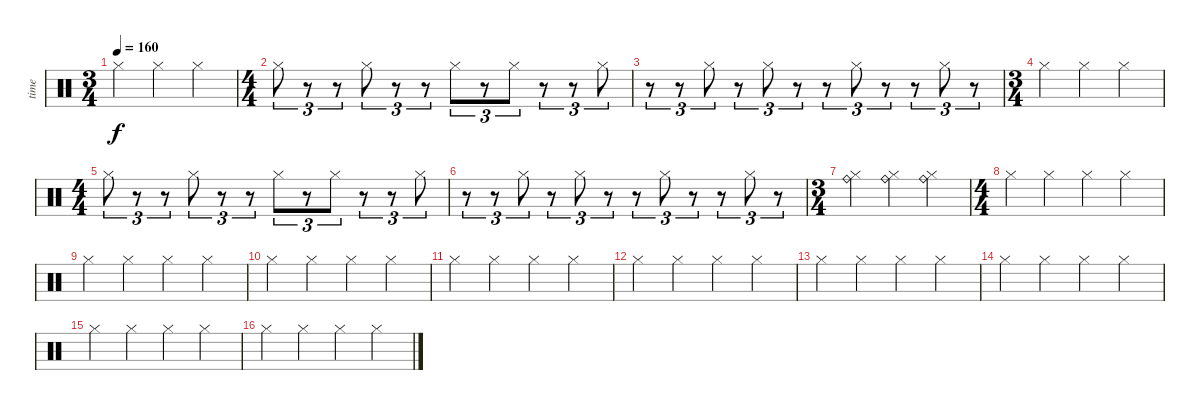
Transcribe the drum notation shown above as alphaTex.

\track ("time" "time") {instrument percussion}
\staff {score}
\articulation defaults
\ts (3 4)
\tempo 160
\clef neutral
\ks c "Hi-Hat (closed)".4{dy f} "Hi-Hat (closed)".4 "Hi-Hat (closed)".4
|
\ts (4 4)
"Hi-Hat (closed)".8{tu (3 2)} r.8{tu (3 2)} r.8{tu (3 2)} "Hi-Hat (closed)".8{tu (3 2)} r.8{tu (3 2)} r.8{tu (3 2)} "Hi-Hat (closed)".8{tu (3 2)} r.8{tu (3 2)} "Hi-Hat (closed)".8{tu (3 2)} r.8{tu (3 2)} r.8{tu (3 2)} "Hi-Hat (closed)".8{tu (3 2)} |
r.8{tu (3 2)} r.8{tu (3 2)} "Hi-Hat (closed)".8{tu (3 2)} r.8{tu (3 2)} "Hi-Hat (closed)".8{tu (3 2)} r.8{tu (3 2)} r.8{tu (3 2)} "Hi-Hat (closed)".8{tu (3 2)} r.8{tu (3 2)} r.8{tu (3 2)} "Hi-Hat (closed)".8{tu (3 2)} r.8{tu (3 2)} |
\ts (3 4)
"Hi-Hat (closed)".4 "Hi-Hat (closed)".4 "Hi-Hat (closed)".4 |
\ts (4 4)
"Hi-Hat (closed)".8{tu (3 2)} r.8{tu (3 2)} r.8{tu (3 2)} "Hi-Hat (closed)".8{tu (3 2)} r.8{tu (3 2)} r.8{tu (3 2)} "Hi-Hat (closed)".8{tu (3 2)} r.8{tu (3 2)} "Hi-Hat (closed)".8{tu (3 2)} r.8{tu (3 2)} r.8{tu (3 2)} "Hi-Hat (closed)".8{tu (3 2)} |
r.8{tu (3 2)} r.8{tu (3 2)} "Hi-Hat (closed)".8{tu (3 2)} r.8{tu (3 2)} "Hi-Hat (closed)".8{tu (3 2)} r.8{tu (3 2)} r.8{tu (3 2)} "Hi-Hat (closed)".8{tu (3 2)} r.8{tu (3 2)} r.8{tu (3 2)} "Hi-Hat (closed)".8{tu (3 2)} r.8{tu (3 2)} |
\ts (3 4)
("Ride (bell)" "Hi-Hat (closed)").4 ("Ride (bell)" "Hi-Hat (closed)").4 ("Ride (bell)" "Hi-Hat (closed)").4 |
\ts (4 4)
"Hi-Hat (closed)".4 "Hi-Hat (closed)".4 "Hi-Hat (closed)".4 "Hi-Hat (closed)".4 |
"Hi-Hat (closed)".4 "Hi-Hat (closed)".4 "Hi-Hat (closed)".4 "Hi-Hat (closed)".4 |
"Hi-Hat (closed)".4 "Hi-Hat (closed)".4 "Hi-Hat (closed)".4 "Hi-Hat (closed)".4 |
"Hi-Hat (closed)".4 "Hi-Hat (closed)".4 "Hi-Hat (closed)".4 "Hi-Hat (closed)".4 |
"Hi-Hat (closed)".4 "Hi-Hat (closed)".4 "Hi-Hat (closed)".4 "Hi-Hat (closed)".4 |
"Hi-Hat (closed)".4 "Hi-Hat (closed)".4 "Hi-Hat (closed)".4 "Hi-Hat (closed)".4 |
"Hi-Hat (closed)".4 "Hi-Hat (closed)".4 "Hi-Hat (closed)".4 "Hi-Hat (closed)".4 |
"Hi-Hat (closed)".4 "Hi-Hat (closed)".4 "Hi-Hat (closed)".4 "Hi-Hat (closed)".4 |
"Hi-Hat (closed)".4 "Hi-Hat (closed)".4 "Hi-Hat (closed)".4 "Hi-Hat (closed)".4
